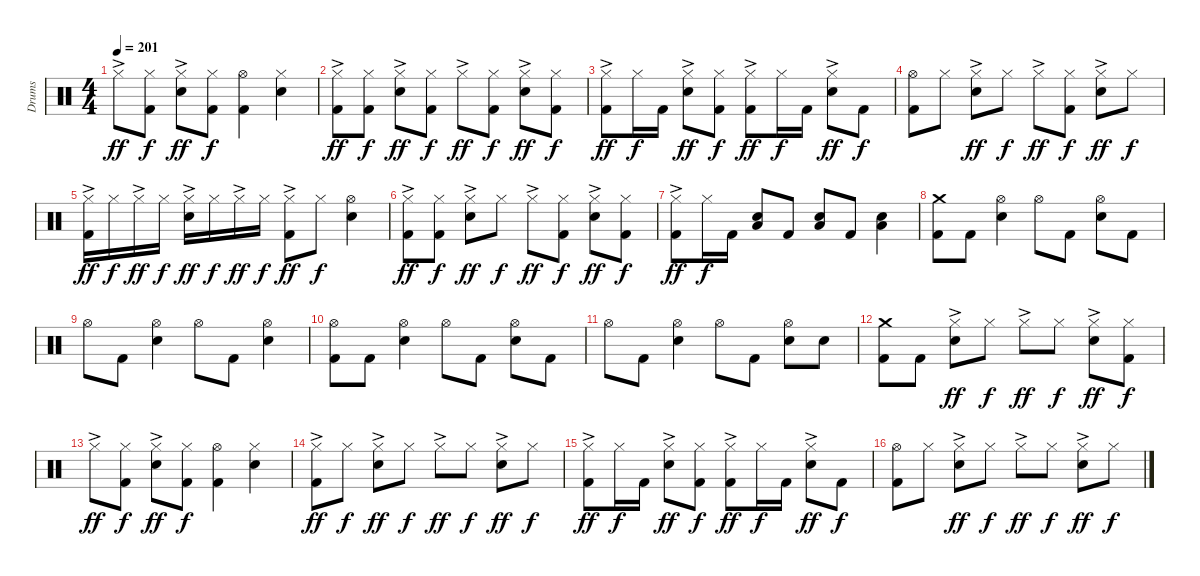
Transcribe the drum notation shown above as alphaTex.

\track ("Drums" "Drums") {instrument percussion}
\staff {score}
\articulation defaults
\ts (4 4)
\tempo 201
\clef neutral
\ks c "Hi-Hat (closed)"{ac}.8{dy ff}
("Hi-Hat (closed)" "Kick (hit) 2").8{dy f} ("Hi-Hat (closed)"{ac} "Electric Snare (hit)").8{dy ff} ("Hi-Hat (closed)" "Kick (hit) 2").8{dy f} ("Hi-Hat (open)" "Kick (hit) 2").4 ("Hi-Hat (closed)" "Electric Snare (hit)").4 |
("Hi-Hat (closed)"{ac} "Kick (hit) 2").8{dy ff} ("Hi-Hat (closed)" "Kick (hit) 2").8{dy f} ("Hi-Hat (closed)"{ac} "Electric Snare (hit)").8{dy ff} ("Hi-Hat (closed)" "Kick (hit) 2").8{dy f} "Hi-Hat (closed)"{ac}.8{dy ff} ("Hi-Hat (closed)" "Kick (hit) 2").8{dy f} ("Hi-Hat (closed)"{ac} "Electric Snare (hit)").8{dy ff} ("Hi-Hat (closed)" "Kick (hit) 2").8{dy f} |
("Hi-Hat (closed)"{ac} "Kick (hit) 2").8{dy ff} "Hi-Hat (closed)".16{dy f} "Kick (hit) 2".16 ("Hi-Hat (closed)"{ac} "Electric Snare (hit)").8{dy ff} ("Hi-Hat (closed)" "Kick (hit) 2").8{dy f} ("Hi-Hat (closed)"{ac} "Kick (hit) 2").8{dy ff} "Hi-Hat (closed)".16{dy f} "Kick (hit) 2".16 ("Hi-Hat (closed)"{ac} "Electric Snare (hit)").8{dy ff} "Kick (hit) 2".8{dy f} |
("Hi-Hat (open)" "Kick (hit) 2").8 "Hi-Hat (closed)".8 ("Hi-Hat (closed)"{ac} "Electric Snare (hit)").8{dy ff} "Hi-Hat (closed)".8{dy f} "Hi-Hat (closed)"{ac}.8{dy ff} ("Hi-Hat (closed)" "Kick (hit) 2").8{dy f} ("Hi-Hat (closed)"{ac} "Electric Snare (hit)").8{dy ff} "Hi-Hat (closed)".8{dy f} |
("Hi-Hat (closed)"{ac} "Kick (hit) 2").16{dy ff} "Hi-Hat (closed)".16{dy f} "Hi-Hat (closed)"{ac}.16{dy ff} "Hi-Hat (closed)".16{dy f} ("Hi-Hat (closed)"{ac} "Electric Snare (hit)").16{dy ff} "Hi-Hat (closed)".16{dy f} "Hi-Hat (closed)"{ac}.16{dy ff} "Hi-Hat (closed)".16{dy f} ("Hi-Hat (closed)"{ac} "Kick (hit) 2").8{dy ff} "Hi-Hat (closed)".8{dy f} ("Hi-Hat (open)" "Electric Snare (hit)").4 |
("Hi-Hat (closed)"{ac} "Kick (hit) 2").8{dy ff} ("Hi-Hat (closed)" "Kick (hit) 2").8{dy f} ("Hi-Hat (closed)"{ac} "Electric Snare (hit)").8{dy ff} "Hi-Hat (closed)".8{dy f} "Hi-Hat (closed)"{ac}.8{dy ff} ("Hi-Hat (closed)" "Kick (hit) 2").8{dy f} ("Hi-Hat (closed)"{ac} "Electric Snare (hit)").8{dy ff} ("Hi-Hat (closed)" "Kick (hit) 2").8{dy f} |
("Hi-Hat (closed)"{ac} "Kick (hit) 2").8{dy ff} "Hi-Hat (closed)".16{dy f} "Kick (hit) 2".16 ("Electric Snare (hit)" "Low Floor Tom (hit)").8 "Kick (hit) 2".8 ("Electric Snare (hit)" "Low Floor Tom (hit)").8 "Kick (hit) 2".8 ("Electric Snare (hit)" "Low Floor Tom (hit)").4 |
("Crash medium (hit)" "Kick (hit) 2").8 "Kick (hit) 2".8 ("Hi-Hat (open)" "Electric Snare (hit)").4 "Hi-Hat (open)".8 "Kick (hit) 2".8 ("Hi-Hat (open)" "Electric Snare (hit)").8 "Kick (hit) 2".8 |
"Hi-Hat (open)".8 "Kick (hit) 2".8 ("Hi-Hat (open)" "Electric Snare (hit)").4 "Hi-Hat (open)".8 "Kick (hit) 2".8 ("Hi-Hat (open)" "Electric Snare (hit)").4 |
("Hi-Hat (open)" "Kick (hit) 2").8 "Kick (hit) 2".8 ("Hi-Hat (open)" "Electric Snare (hit)").4 "Hi-Hat (open)".8 "Kick (hit) 2".8 ("Hi-Hat (open)" "Electric Snare (hit)").8 "Kick (hit) 2".8 |
"Hi-Hat (open)".8 "Kick (hit) 2".8 ("Hi-Hat (open)" "Electric Snare (hit)").4 "Hi-Hat (open)".8 "Kick (hit) 2".8 ("Hi-Hat (open)" "Electric Snare (hit)").8 "Electric Snare (hit)".8 |
("Crash medium (hit)" "Kick (hit) 2").8 "Kick (hit) 2".8 ("Hi-Hat (closed)"{ac} "Electric Snare (hit)").8{dy ff} "Hi-Hat (closed)".8{dy f} "Hi-Hat (closed)"{ac}.8{dy ff} "Hi-Hat (closed)".8{dy f} ("Hi-Hat (closed)"{ac} "Electric Snare (hit)").8{dy ff} ("Hi-Hat (closed)" "Kick (hit) 2").8{dy f} |
"Hi-Hat (closed)"{ac}.8{dy ff} ("Hi-Hat (closed)" "Kick (hit) 2").8{dy f} ("Hi-Hat (closed)"{ac} "Electric Snare (hit)").8{dy ff} ("Hi-Hat (closed)" "Kick (hit) 2").8{dy f} ("Hi-Hat (open)" "Kick (hit) 2").4 ("Hi-Hat (closed)" "Electric Snare (hit)").4 |
("Hi-Hat (closed)"{ac} "Kick (hit) 2").8{dy ff} "Hi-Hat (closed)".8{dy f} ("Hi-Hat (closed)"{ac} "Electric Snare (hit)").8{dy ff} "Hi-Hat (closed)".8{dy f} "Hi-Hat (closed)"{ac}.8{dy ff} "Hi-Hat (closed)".8{dy f} ("Hi-Hat (closed)"{ac} "Electric Snare (hit)").8{dy ff} "Hi-Hat (closed)".8{dy f} |
("Hi-Hat (closed)"{ac} "Kick (hit) 2").8{dy ff} "Hi-Hat (closed)".16{dy f} "Kick (hit) 2".16 ("Hi-Hat (closed)"{ac} "Electric Snare (hit)").8{dy ff} ("Hi-Hat (closed)" "Kick (hit) 2").8{dy f} ("Hi-Hat (closed)"{ac} "Kick (hit) 2").8{dy ff} "Hi-Hat (closed)".16{dy f} "Kick (hit) 2".16 ("Hi-Hat (closed)"{ac} "Electric Snare (hit)").8{dy ff} "Kick (hit) 2".8{dy f} |
("Hi-Hat (open)" "Kick (hit) 2").8 "Hi-Hat (closed)".8 ("Hi-Hat (closed)"{ac} "Electric Snare (hit)").8{dy ff} "Hi-Hat (closed)".8{dy f} "Hi-Hat (closed)"{ac}.8{dy ff} "Hi-Hat (closed)".8{dy f} ("Hi-Hat (closed)"{ac} "Electric Snare (hit)").8{dy ff} "Hi-Hat (closed)".8{dy f}
